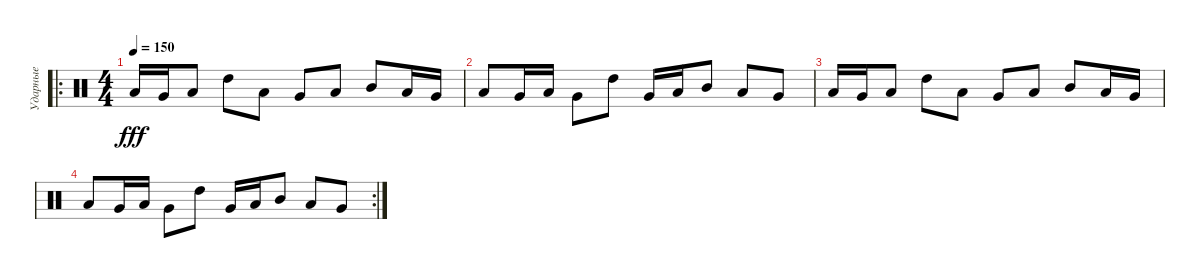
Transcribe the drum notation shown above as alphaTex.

\track ("Ударные" "Ударные") {instrument percussion}
\staff {score}
\articulation defaults
\ro
\ts (4 4)
\tempo 150
\clef neutral
\ks c "Low Floor Tom (hit)".16{dy fff} "Very Low Tom (hit)".16 "Low Tom (hit)".8 "High Tom (hit)".8 "Low Tom (hit)".8 "Very Low Tom (hit)".8 "Low Floor Tom (hit)".8 "Mid Tom (hit)".8 "Low Tom (hit)".16 "Very Low Tom (hit)".16
|
"Low Floor Tom (hit)".8 "Very Low Tom (hit)".16 "Low Tom (hit)".16 "Very Low Tom (hit)".8 "High Tom (hit)".8 "Very Low Tom (hit)".16 "Low Floor Tom (hit)".16 "Mid Tom (hit)".8 "Low Tom (hit)".8 "Very Low Tom (hit)".8 |
"Low Floor Tom (hit)".16 "Very Low Tom (hit)".16 "Low Tom (hit)".8 "High Tom (hit)".8 "Low Tom (hit)".8 "Very Low Tom (hit)".8 "Low Floor Tom (hit)".8 "Mid Tom (hit)".8 "Low Tom (hit)".16 "Very Low Tom (hit)".16 |
\rc 2 "Low Floor Tom (hit)".8 "Very Low Tom (hit)".16 "Low Tom (hit)".16 "Very Low Tom (hit)".8 "High Tom (hit)".8 "Very Low Tom (hit)".16 "Low Floor Tom (hit)".16 "Mid Tom (hit)".8 "Low Tom (hit)".8 "Very Low Tom (hit)".8
